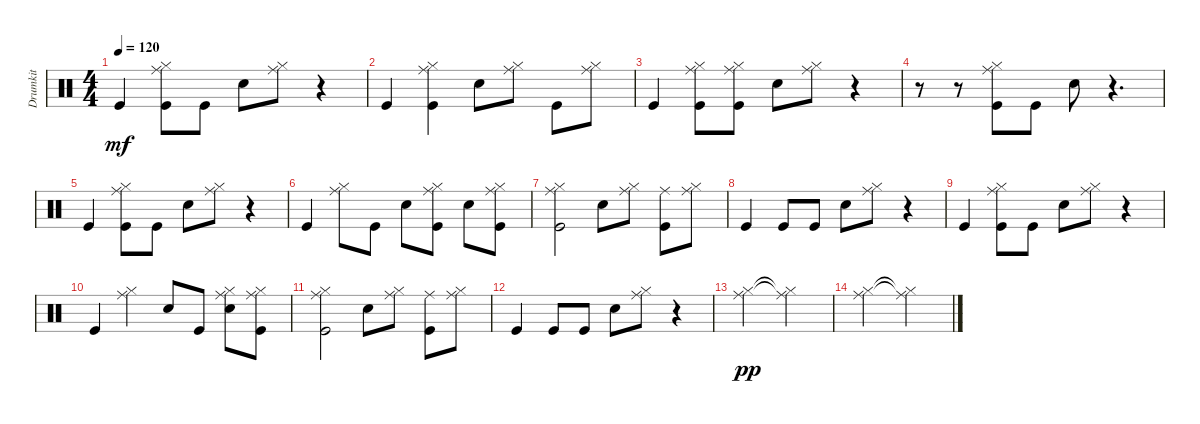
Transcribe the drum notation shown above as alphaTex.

\track ("Drumkit" "Drumkit") {instrument percussion}
\staff {score}
\articulation defaults
\ts (4 4)
\tempo 120
\clef neutral
\ks c "Kick (hit)".4{dy mf}
("Kick (hit)" "Ride (middle)" "Hi-Hat (closed)").8 "Kick (hit)".8 "Snare (hit) 2".8 ("Hi-Hat (closed)" "Ride (middle)").8 r.4 |
"Kick (hit)".4 ("Kick (hit)" "Ride (middle)" "Hi-Hat (closed)").4 "Snare (hit) 2".8 ("Ride (middle)" "Hi-Hat (closed)").8 "Kick (hit)".8 ("Ride (middle)" "Hi-Hat (closed)").8 |
"Kick (hit)".4 ("Kick (hit)" "Ride (middle)" "Hi-Hat (closed)").8 ("Kick (hit)" "Ride (middle)" "Hi-Hat (closed)").8 "Snare (hit) 2".8 ("Hi-Hat (closed)" "Ride (middle)").8 r.4 |
r.8 r.8 ("Ride (middle)" "Hi-Hat (closed)" "Kick (hit)").8 "Kick (hit)".8 "Snare (hit) 2".8 r.4{d} |
"Kick (hit)".4 ("Kick (hit)" "Ride (middle)" "Hi-Hat (closed)").8 "Kick (hit)".8 "Snare (hit) 2".8 ("Ride (middle)" "Hi-Hat (closed)").8 r.4 |
"Kick (hit)".4 ("Ride (middle)" "Hi-Hat (closed)").8 "Kick (hit)".8 "Snare (hit) 2".8 ("Ride (middle)" "Hi-Hat (closed)" "Kick (hit)").8 "Snare (hit) 2".8 ("Ride (middle)" "Hi-Hat (closed)" "Kick (hit)").8 |
("Kick (hit)" "Ride (middle)" "Hi-Hat (closed)").2 "Snare (hit) 2".8 ("Hi-Hat (closed)" "Ride (middle)").8 ("Kick (hit)" "Ride (middle)").8 ("Hi-Hat (closed)" "Ride (middle)").8 |
"Kick (hit)".4 "Kick (hit)".8 "Kick (hit)".8 "Snare (hit) 2".8 ("Hi-Hat (closed)" "Ride (middle)").8 r.4 |
"Kick (hit)".4 ("Kick (hit)" "Ride (middle)" "Hi-Hat (closed)").8 "Kick (hit)".8 "Snare (hit) 2".8 ("Hi-Hat (closed)" "Ride (middle)").8 r.4 |
"Kick (hit)".4 ("Ride (middle)" "Hi-Hat (closed)").4 "Snare (hit) 2".8 "Kick (hit)".8 ("Hi-Hat (closed)" "Ride (middle)" "Snare (hit) 2").8 ("Ride (middle)" "Hi-Hat (closed)" "Kick (hit)").8 |
("Kick (hit)" "Ride (middle)" "Hi-Hat (closed)").2 "Snare (hit) 2".8 ("Hi-Hat (closed)" "Ride (middle)").8 ("Kick (hit)" "Ride (middle)").8 ("Hi-Hat (closed)" "Ride (middle)").8 |
"Kick (hit)".4 "Kick (hit)".8 "Kick (hit)".8 "Snare (hit) 2".8 ("Hi-Hat (closed)" "Ride (middle)").8 r.4 |
("Ride (middle)" "Hi-Hat (closed)").2{dy pp} ("Ride (middle)"{t} "Hi-Hat (closed)"{t}).2 |
("Ride (middle)" "Hi-Hat (closed)").2 ("Ride (middle)"{t} "Hi-Hat (closed)"{t}).2
